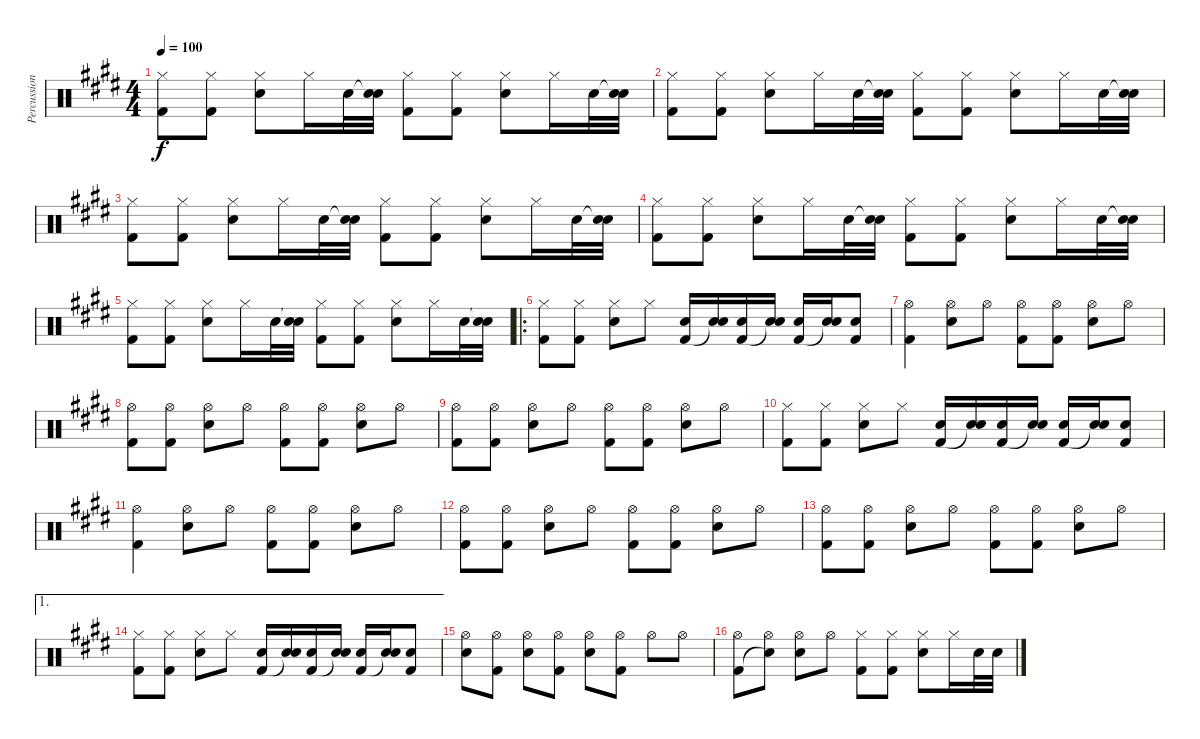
\track ("Percussion" "Percussion") {instrument percussion}
\staff {score}
\articulation defaults
\ts (4 4)
\tempo 100
\clef neutral
\ks e
("Hi-Hat (closed)" "Kick (hit) 2").8{dy f} ("Hi-Hat (closed)" "Kick (hit) 2").8 ("Hi-Hat (closed)" "Snare (hit) 2").8 "Hi-Hat (closed)".16 "Snare (hit) 2".32 ("Snare (hit)"{t} "Snare (hit) 2").32 ("Hi-Hat (closed)" "Kick (hit) 2").8 ("Hi-Hat (closed)" "Kick (hit) 2").8 ("Hi-Hat (closed)" "Snare (hit) 2").8 "Hi-Hat (closed)".16 "Snare (hit) 2".32 ("Snare (hit)"{t} "Snare (hit) 2").32 |
("Hi-Hat (closed)" "Kick (hit) 2").8 ("Hi-Hat (closed)" "Kick (hit) 2").8 ("Hi-Hat (closed)" "Snare (hit) 2").8 "Hi-Hat (closed)".16 "Snare (hit) 2".32 ("Snare (hit)"{t} "Snare (hit) 2").32 ("Hi-Hat (closed)" "Kick (hit) 2").8 ("Hi-Hat (closed)" "Kick (hit) 2").8 ("Hi-Hat (closed)" "Snare (hit) 2").8 "Hi-Hat (closed)".16 "Snare (hit) 2".32 ("Snare (hit)"{t} "Snare (hit) 2").32 |
("Hi-Hat (closed)" "Kick (hit) 2").8 ("Hi-Hat (closed)" "Kick (hit) 2").8 ("Hi-Hat (closed)" "Snare (hit) 2").8 "Hi-Hat (closed)".16 "Snare (hit) 2".32 ("Snare (hit)"{t} "Snare (hit) 2").32 ("Hi-Hat (closed)" "Kick (hit) 2").8 ("Hi-Hat (closed)" "Kick (hit) 2").8 ("Hi-Hat (closed)" "Snare (hit) 2").8 "Hi-Hat (closed)".16 "Snare (hit) 2".32 ("Snare (hit)"{t} "Snare (hit) 2").32 |
("Hi-Hat (closed)" "Kick (hit) 2").8 ("Hi-Hat (closed)" "Kick (hit) 2").8 ("Hi-Hat (closed)" "Snare (hit) 2").8 "Hi-Hat (closed)".16 "Snare (hit) 2".32 ("Snare (hit)"{t} "Snare (hit) 2").32 ("Hi-Hat (closed)" "Kick (hit) 2").8 ("Hi-Hat (closed)" "Kick (hit) 2").8 ("Hi-Hat (closed)" "Snare (hit) 2").8 "Hi-Hat (closed)".16 "Snare (hit) 2".32 ("Snare (hit)"{t} "Snare (hit) 2").32 |
("Hi-Hat (closed)" "Kick (hit) 2").8 ("Hi-Hat (closed)" "Kick (hit) 2").8 ("Hi-Hat (closed)" "Snare (hit) 2").8 "Hi-Hat (closed)".16 "Snare (hit) 2".32 ("Snare (hit)"{t} "Snare (hit) 2").32 ("Hi-Hat (closed)" "Kick (hit) 2").8 ("Hi-Hat (closed)" "Kick (hit) 2").8 ("Hi-Hat (closed)" "Snare (hit) 2").8 "Hi-Hat (closed)".16 "Snare (hit) 2".32 ("Snare (hit)"{t} "Snare (hit) 2").32 |
\ro
("Hi-Hat (closed)" "Kick (hit) 2").8 ("Hi-Hat (closed)" "Kick (hit) 2").8 ("Hi-Hat (closed)" "Snare (hit) 2").8 "Hi-Hat (closed)".8 ("Snare (hit) 2" "Kick (hit) 2").16 ("Snare (hit) 2" "Snare (hit)"{t}).16 ("Snare (hit) 2" "Kick (hit) 2").16 ("Snare (hit) 2" "Snare (hit)"{t}).16 ("Snare (hit) 2" "Kick (hit) 2").16 ("Snare (hit) 2" "Snare (hit)"{t}).16 ("Snare (hit) 2" "Kick (hit) 2").8 |
("Hi-Hat (open)" "Kick (hit) 2").4 ("Hi-Hat (open)" "Snare (hit) 2").8 "Hi-Hat (open)".8 ("Hi-Hat (open)" "Kick (hit) 2").8 ("Hi-Hat (open)" "Kick (hit) 2").8 ("Hi-Hat (open)" "Snare (hit) 2").8 "Hi-Hat (open)".8 |
("Hi-Hat (open)" "Kick (hit) 2").8 ("Hi-Hat (open)" "Kick (hit) 2").8 ("Hi-Hat (open)" "Snare (hit) 2").8 "Hi-Hat (open)".8 ("Hi-Hat (open)" "Kick (hit) 2").8 ("Hi-Hat (open)" "Kick (hit) 2").8 ("Hi-Hat (open)" "Snare (hit) 2").8 "Hi-Hat (open)".8 |
("Hi-Hat (open)" "Kick (hit) 2").8 ("Hi-Hat (open)" "Kick (hit) 2").8 ("Hi-Hat (open)" "Snare (hit) 2").8 "Hi-Hat (open)".8 ("Hi-Hat (open)" "Kick (hit) 2").8 ("Hi-Hat (open)" "Kick (hit) 2").8 ("Hi-Hat (open)" "Snare (hit) 2").8 "Hi-Hat (open)".8 |
("Hi-Hat (closed)" "Kick (hit) 2").8 ("Hi-Hat (closed)" "Kick (hit) 2").8 ("Hi-Hat (closed)" "Snare (hit) 2").8 "Hi-Hat (closed)".8 ("Snare (hit) 2" "Kick (hit) 2").16 ("Snare (hit) 2" "Snare (hit)"{t}).16 ("Snare (hit) 2" "Kick (hit) 2").16 ("Snare (hit) 2" "Snare (hit)"{t}).16 ("Snare (hit) 2" "Kick (hit) 2").16 ("Snare (hit) 2" "Snare (hit)"{t}).16 ("Snare (hit) 2" "Kick (hit) 2").8 |
("Hi-Hat (open)" "Kick (hit) 2").4 ("Hi-Hat (open)" "Snare (hit) 2").8 "Hi-Hat (open)".8 ("Hi-Hat (open)" "Kick (hit) 2").8 ("Hi-Hat (open)" "Kick (hit) 2").8 ("Hi-Hat (open)" "Snare (hit) 2").8 "Hi-Hat (open)".8 |
("Hi-Hat (open)" "Kick (hit) 2").8 ("Hi-Hat (open)" "Kick (hit) 2").8 ("Hi-Hat (open)" "Snare (hit) 2").8 "Hi-Hat (open)".8 ("Hi-Hat (open)" "Kick (hit) 2").8 ("Hi-Hat (open)" "Kick (hit) 2").8 ("Hi-Hat (open)" "Snare (hit) 2").8 "Hi-Hat (open)".8 |
("Hi-Hat (open)" "Kick (hit) 2").8 ("Hi-Hat (open)" "Kick (hit) 2").8 ("Hi-Hat (open)" "Snare (hit) 2").8 "Hi-Hat (open)".8 ("Hi-Hat (open)" "Kick (hit) 2").8 ("Hi-Hat (open)" "Kick (hit) 2").8 ("Hi-Hat (open)" "Snare (hit) 2").8 "Hi-Hat (open)".8 |
\ae 1
("Hi-Hat (closed)" "Kick (hit) 2").8 ("Hi-Hat (closed)" "Kick (hit) 2").8 ("Hi-Hat (closed)" "Snare (hit) 2").8 "Hi-Hat (closed)".8 ("Snare (hit) 2" "Kick (hit) 2").16 ("Snare (hit) 2" "Snare (hit)"{t}).16 ("Snare (hit) 2" "Kick (hit) 2").16 ("Snare (hit) 2" "Snare (hit)"{t}).16 ("Snare (hit) 2" "Kick (hit) 2").16 ("Snare (hit) 2" "Snare (hit)"{t}).16 ("Snare (hit) 2" "Kick (hit) 2").8 |
("Hi-Hat (open)" "Snare (hit) 2").8 ("Hi-Hat (open)" "Kick (hit) 2").8 ("Hi-Hat (open)" "Snare (hit) 2").8 ("Hi-Hat (open)" "Kick (hit) 2").8 ("Hi-Hat (open)" "Snare (hit) 2").8 ("Hi-Hat (open)" "Kick (hit) 2").8 "Hi-Hat (open)".8 "Hi-Hat (open)".8 |
("Hi-Hat (open)" "Kick (hit) 2").8 ("Hi-Hat (open)" "Snare (hit)"{t}).8 ("Hi-Hat (open)" "Snare (hit) 2").8 "Hi-Hat (open)".8 ("Hi-Hat (closed)" "Kick (hit) 2").8 ("Hi-Hat (closed)" "Kick (hit) 2").8 ("Hi-Hat (closed)" "Snare (hit) 2").8 "Hi-Hat (closed)".16 "Snare (hit) 2".32 "Snare (hit) 2".32
